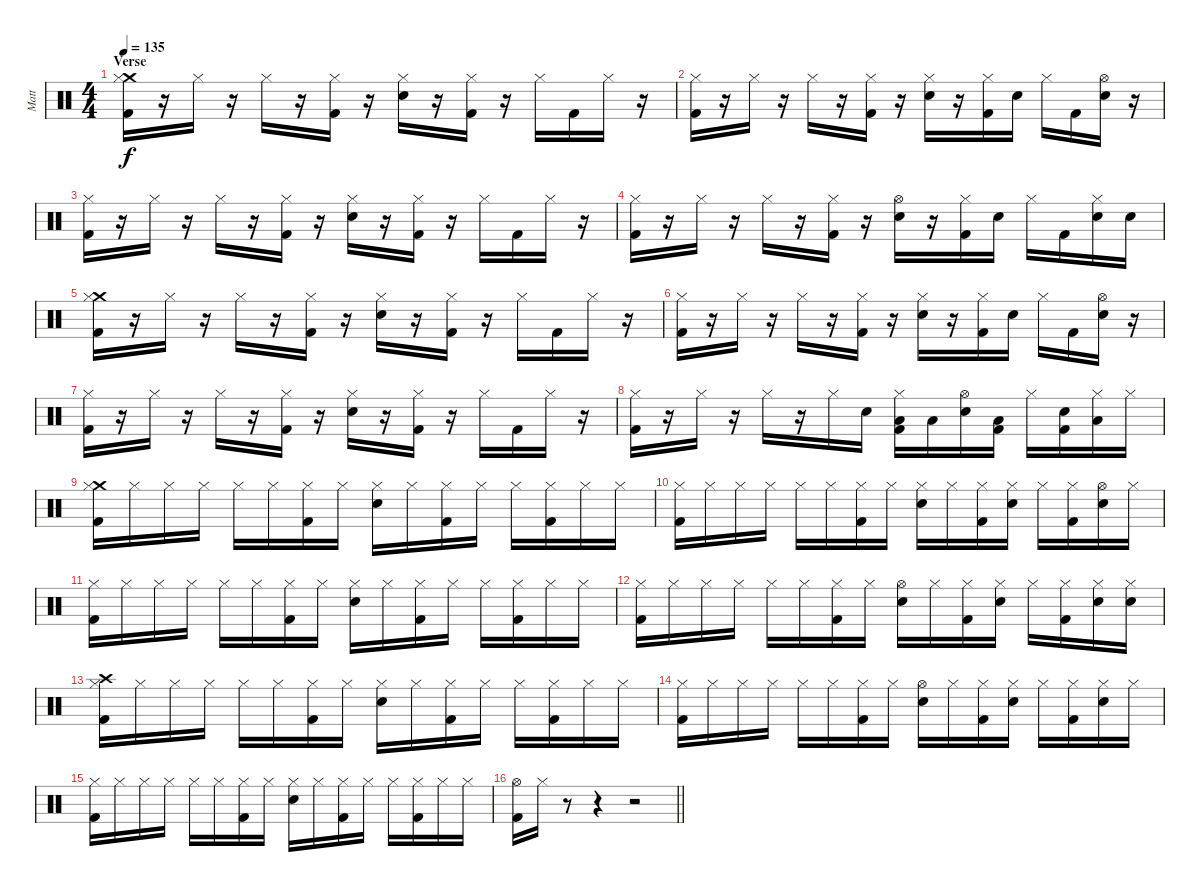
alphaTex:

\track ("Matt" "Matt") {instrument percussion}
\staff {score}
\articulation defaults
\ts (4 4)
\section ("" "Verse")
\tempo 135
\clef neutral
\ks c
("Crash medium (hit)" "Hi-Hat (closed)" "Kick (hit) 2").16{dy f} r.16 "Hi-Hat (closed)".16 r.16 "Hi-Hat (closed)".16 r.16 ("Hi-Hat (closed)" "Kick (hit) 2").16 r.16 ("Hi-Hat (closed)" "Snare (hit) 2").16 r.16 ("Hi-Hat (closed)" "Kick (hit) 2").16 r.16 "Hi-Hat (closed)".16 "Kick (hit) 2".16 "Hi-Hat (closed)".16 r.16 |
("Hi-Hat (closed)" "Kick (hit) 2").16 r.16 "Hi-Hat (closed)".16 r.16 "Hi-Hat (closed)".16 r.16 ("Hi-Hat (closed)" "Kick (hit) 2").16 r.16 ("Hi-Hat (closed)" "Snare (hit) 2").16 r.16 ("Hi-Hat (closed)" "Kick (hit) 2").16 "Snare (hit) 2".16 "Hi-Hat (closed)".16 "Kick (hit) 2".16 ("Hi-Hat (open)" "Snare (hit) 2").16 r.16 |
("Hi-Hat (closed)" "Kick (hit) 2").16 r.16 "Hi-Hat (closed)".16 r.16 "Hi-Hat (closed)".16 r.16 ("Hi-Hat (closed)" "Kick (hit) 2").16 r.16 ("Hi-Hat (closed)" "Snare (hit) 2").16 r.16 ("Hi-Hat (closed)" "Kick (hit) 2").16 r.16 "Hi-Hat (closed)".16 "Kick (hit) 2".16 "Hi-Hat (closed)".16 r.16 |
("Hi-Hat (closed)" "Kick (hit) 2").16 r.16 "Hi-Hat (closed)".16 r.16 "Hi-Hat (closed)".16 r.16 ("Hi-Hat (closed)" "Kick (hit) 2").16 r.16 ("Hi-Hat (open)" "Snare (hit) 2").16 r.16 ("Hi-Hat (closed)" "Kick (hit) 2").16 "Snare (hit) 2".16 "Hi-Hat (closed)".16 "Kick (hit) 2".16 ("Hi-Hat (closed)" "Snare (hit) 2").16 "Snare (hit) 2".16 |
("Crash medium (hit)" "Hi-Hat (closed)" "Kick (hit) 2").16 r.16 "Hi-Hat (closed)".16 r.16 "Hi-Hat (closed)".16 r.16 ("Hi-Hat (closed)" "Kick (hit) 2").16 r.16 ("Hi-Hat (closed)" "Snare (hit) 2").16 r.16 ("Hi-Hat (closed)" "Kick (hit) 2").16 r.16 "Hi-Hat (closed)".16 "Kick (hit) 2".16 "Hi-Hat (closed)".16 r.16 |
("Hi-Hat (closed)" "Kick (hit) 2").16 r.16 "Hi-Hat (closed)".16 r.16 "Hi-Hat (closed)".16 r.16 ("Hi-Hat (closed)" "Kick (hit) 2").16 r.16 ("Hi-Hat (closed)" "Snare (hit) 2").16 r.16 ("Hi-Hat (closed)" "Kick (hit) 2").16 "Snare (hit) 2".16 "Hi-Hat (closed)".16 "Kick (hit) 2".16 ("Hi-Hat (open)" "Snare (hit) 2").16 r.16 |
("Hi-Hat (closed)" "Kick (hit) 2").16 r.16 "Hi-Hat (closed)".16 r.16 "Hi-Hat (closed)".16 r.16 ("Hi-Hat (closed)" "Kick (hit) 2").16 r.16 ("Hi-Hat (closed)" "Snare (hit) 2").16 r.16 ("Hi-Hat (closed)" "Kick (hit) 2").16 r.16 "Hi-Hat (closed)".16 "Kick (hit) 2".16 "Hi-Hat (closed)".16 r.16 |
("Hi-Hat (closed)" "Kick (hit) 2").16 r.16 "Hi-Hat (closed)".16 r.16 "Hi-Hat (closed)".16 r.16 "Hi-Hat (closed)".16 "Snare (hit) 2".16 ("Hi-Hat (closed)" "Low Tom (hit)" "Kick (hit) 2").16 "Low Tom (hit)".16 ("Hi-Hat (open)" "Snare (hit) 2").16 ("Low Tom (hit)" "Kick (hit) 2").16 "Hi-Hat (closed)".16 ("Snare (hit) 2" "Kick (hit) 2").16 ("Hi-Hat (closed)" "Low Tom (hit)").16 "Hi-Hat (closed)".16 |
("Crash medium (hit)" "Hi-Hat (closed)" "Kick (hit) 2").16 "Hi-Hat (closed)".16 "Hi-Hat (closed)".16 "Hi-Hat (closed)".16 "Hi-Hat (closed)".16 "Hi-Hat (closed)".16 ("Hi-Hat (closed)" "Kick (hit) 2").16 "Hi-Hat (closed)".16 ("Hi-Hat (closed)" "Snare (hit) 2").16 "Hi-Hat (closed)".16 ("Hi-Hat (closed)" "Kick (hit) 2").16 "Hi-Hat (closed)".16 "Hi-Hat (closed)".16 ("Hi-Hat (closed)" "Kick (hit) 2").16 "Hi-Hat (closed)".16 "Hi-Hat (closed)".16 |
("Hi-Hat (closed)" "Kick (hit) 2").16 "Hi-Hat (closed)".16 "Hi-Hat (closed)".16 "Hi-Hat (closed)".16 "Hi-Hat (closed)".16 "Hi-Hat (closed)".16 ("Hi-Hat (closed)" "Kick (hit) 2").16 "Hi-Hat (closed)".16 ("Hi-Hat (closed)" "Snare (hit) 2").16 "Hi-Hat (closed)".16 ("Hi-Hat (closed)" "Kick (hit) 2").16 ("Hi-Hat (closed)" "Snare (hit) 2").16 "Hi-Hat (closed)".16 ("Hi-Hat (closed)" "Kick (hit) 2").16 ("Hi-Hat (open)" "Snare (hit) 2").16 "Hi-Hat (closed)".16 |
("Hi-Hat (closed)" "Kick (hit) 2").16 "Hi-Hat (closed)".16 "Hi-Hat (closed)".16 "Hi-Hat (closed)".16 "Hi-Hat (closed)".16 "Hi-Hat (closed)".16 ("Hi-Hat (closed)" "Kick (hit) 2").16 "Hi-Hat (closed)".16 ("Hi-Hat (closed)" "Snare (hit) 2").16 "Hi-Hat (closed)".16 ("Hi-Hat (closed)" "Kick (hit) 2").16 "Hi-Hat (closed)".16 "Hi-Hat (closed)".16 ("Hi-Hat (closed)" "Kick (hit) 2").16 "Hi-Hat (closed)".16 "Hi-Hat (closed)".16 |
("Hi-Hat (closed)" "Kick (hit) 2").16 "Hi-Hat (closed)".16 "Hi-Hat (closed)".16 "Hi-Hat (closed)".16 "Hi-Hat (closed)".16 "Hi-Hat (closed)".16 ("Hi-Hat (closed)" "Kick (hit) 2").16 "Hi-Hat (closed)".16 ("Hi-Hat (open)" "Snare (hit) 2").16 "Hi-Hat (closed)".16 ("Hi-Hat (closed)" "Kick (hit) 2").16 ("Hi-Hat (closed)" "Snare (hit) 2").16 "Hi-Hat (closed)".16 ("Hi-Hat (closed)" "Kick (hit) 2").16 ("Hi-Hat (closed)" "Snare (hit) 2").16 ("Hi-Hat (closed)" "Snare (hit) 2").16 |
("Crash high (hit)" "Hi-Hat (closed)" "Kick (hit) 2").16 "Hi-Hat (closed)".16 "Hi-Hat (closed)".16 "Hi-Hat (closed)".16 "Hi-Hat (closed)".16 "Hi-Hat (closed)".16 ("Hi-Hat (closed)" "Kick (hit) 2").16 "Hi-Hat (closed)".16 ("Hi-Hat (closed)" "Snare (hit) 2").16 "Hi-Hat (closed)".16 ("Hi-Hat (closed)" "Kick (hit) 2").16 "Hi-Hat (closed)".16 "Hi-Hat (closed)".16 ("Hi-Hat (closed)" "Kick (hit) 2").16 "Hi-Hat (closed)".16 "Hi-Hat (closed)".16 |
("Hi-Hat (closed)" "Kick (hit) 2").16 "Hi-Hat (closed)".16 "Hi-Hat (closed)".16 "Hi-Hat (closed)".16 "Hi-Hat (closed)".16 "Hi-Hat (closed)".16 ("Hi-Hat (closed)" "Kick (hit) 2").16 "Hi-Hat (closed)".16 ("Hi-Hat (open)" "Snare (hit) 2").16 "Hi-Hat (closed)".16 ("Hi-Hat (closed)" "Kick (hit) 2").16 ("Hi-Hat (closed)" "Snare (hit) 2").16 "Hi-Hat (closed)".16 ("Hi-Hat (closed)" "Kick (hit) 2").16 ("Hi-Hat (closed)" "Snare (hit) 2").16 "Hi-Hat (closed)".16 |
("Hi-Hat (closed)" "Kick (hit) 2").16 "Hi-Hat (closed)".16 "Hi-Hat (closed)".16 "Hi-Hat (closed)".16 "Hi-Hat (closed)".16 "Hi-Hat (closed)".16 ("Hi-Hat (closed)" "Kick (hit) 2").16 "Hi-Hat (closed)".16 ("Hi-Hat (closed)" "Snare (hit) 2").16 "Hi-Hat (closed)".16 ("Hi-Hat (closed)" "Kick (hit) 2").16 "Hi-Hat (closed)".16 "Hi-Hat (closed)".16 ("Hi-Hat (closed)" "Kick (hit) 2").16 "Hi-Hat (closed)".16 "Hi-Hat (closed)".16 |
\barLineRight lightlight
("Hi-Hat (open)" "Kick (hit) 2").16 "Hi-Hat (closed)".16 r.8 r.4 r.2
